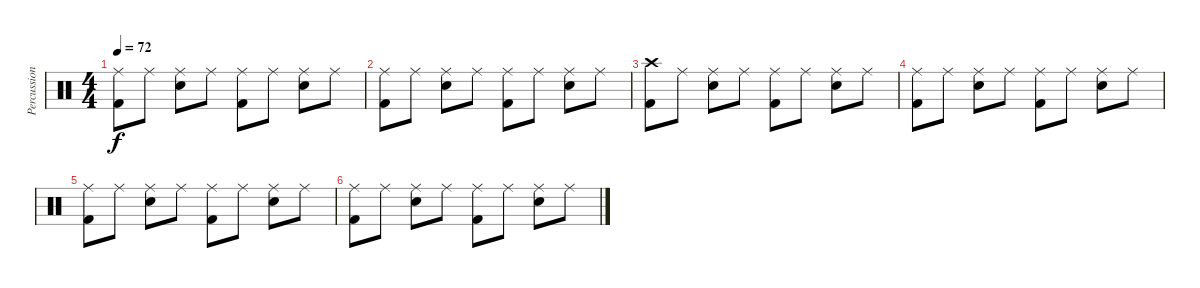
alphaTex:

\track ("Percussion" "Percussion") {instrument percussion}
\staff {score}
\articulation defaults
\ts (4 4)
\tempo 72
\clef neutral
\ks c
("Ride (middle)" "Kick (hit) 2").8{dy f} "Ride (middle)".8 ("Ride (middle)" "Electric Snare (hit)").8 "Ride (middle)".8 ("Ride (middle)" "Kick (hit) 2").8 "Ride (middle)".8 ("Ride (middle)" "Electric Snare (hit)").8 "Ride (middle)".8 |
("Ride (middle)" "Kick (hit) 2").8 "Ride (middle)".8 ("Ride (middle)" "Electric Snare (hit)").8 "Ride (middle)".8 ("Ride (middle)" "Kick (hit) 2").8 "Ride (middle)".8 ("Ride (middle)" "Electric Snare (hit)").8 "Ride (middle)".8 |
("Crash high (hit)" "Kick (hit) 2").8 "Ride (middle)".8 ("Ride (middle)" "Electric Snare (hit)").8 "Ride (middle)".8 ("Ride (middle)" "Kick (hit) 2").8 "Ride (middle)".8 ("Ride (middle)" "Electric Snare (hit)").8 "Ride (middle)".8 |
("Ride (middle)" "Kick (hit) 2").8 "Ride (middle)".8 ("Ride (middle)" "Electric Snare (hit)").8 "Ride (middle)".8 ("Ride (middle)" "Kick (hit) 2").8 "Ride (middle)".8 ("Ride (middle)" "Electric Snare (hit)").8 "Ride (middle)".8 |
("Ride (middle)" "Kick (hit) 2").8 "Ride (middle)".8 ("Ride (middle)" "Electric Snare (hit)").8 "Ride (middle)".8 ("Ride (middle)" "Kick (hit) 2").8 "Ride (middle)".8 ("Ride (middle)" "Electric Snare (hit)").8 "Ride (middle)".8 |
("Ride (middle)" "Kick (hit) 2").8 "Ride (middle)".8 ("Ride (middle)" "Electric Snare (hit)").8 "Ride (middle)".8 ("Ride (middle)" "Kick (hit) 2").8 "Ride (middle)".8 ("Ride (middle)" "Electric Snare (hit)").8 "Ride (middle)".8
